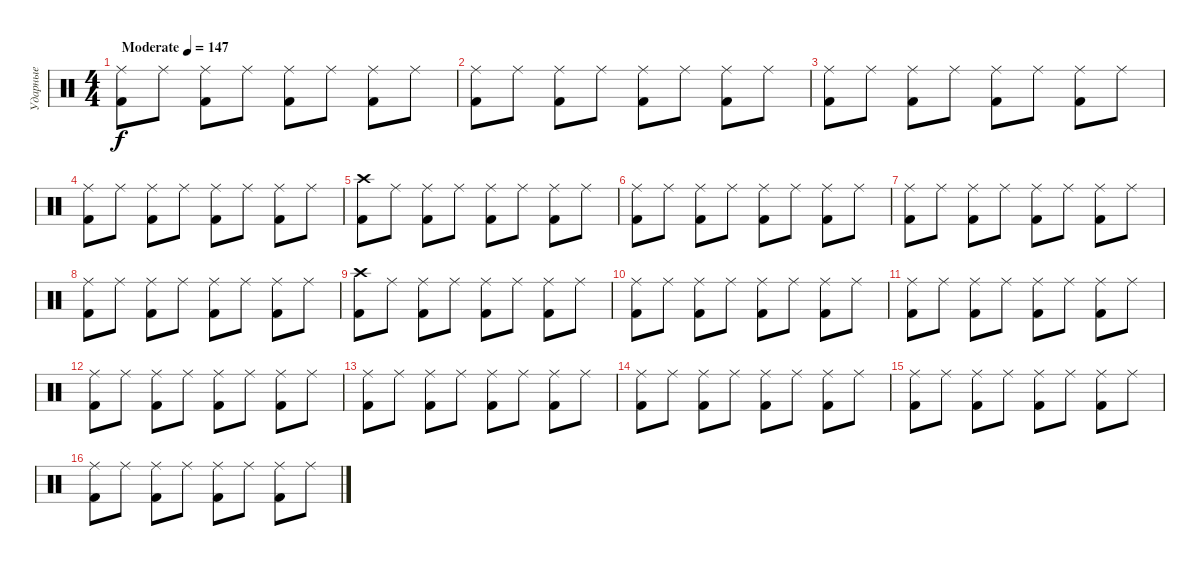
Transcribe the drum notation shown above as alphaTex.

\track ("Ударные" "Ударные") {instrument percussion}
\staff {score}
\articulation defaults
\ts (4 4)
\tempo (147 "Moderate")
\clef neutral
\ks c
("Ride (middle)" "Kick (hit) 2").8{dy f} "Ride (middle)".8 ("Ride (middle)" "Kick (hit) 2").8 "Ride (middle)".8 ("Ride (middle)" "Kick (hit) 2").8 "Ride (middle)".8 ("Ride (middle)" "Kick (hit) 2").8 "Ride (middle)".8 |
("Ride (middle)" "Kick (hit) 2").8 "Ride (middle)".8 ("Ride (middle)" "Kick (hit) 2").8 "Ride (middle)".8 ("Ride (middle)" "Kick (hit) 2").8 "Ride (middle)".8 ("Ride (middle)" "Kick (hit) 2").8 "Ride (middle)".8 |
("Ride (middle)" "Kick (hit) 2").8 "Ride (middle)".8 ("Ride (middle)" "Kick (hit) 2").8 "Ride (middle)".8 ("Ride (middle)" "Kick (hit) 2").8 "Ride (middle)".8 ("Ride (middle)" "Kick (hit) 2").8 "Ride (middle)".8 |
("Ride (middle)" "Kick (hit) 2").8 "Ride (middle)".8 ("Ride (middle)" "Kick (hit) 2").8 "Ride (middle)".8 ("Ride (middle)" "Kick (hit) 2").8 "Ride (middle)".8 ("Ride (middle)" "Kick (hit) 2").8 "Ride (middle)".8 |
("Crash high (hit)" "Kick (hit) 2").8 "Ride (middle)".8 ("Ride (middle)" "Kick (hit) 2").8 "Ride (middle)".8 ("Ride (middle)" "Kick (hit) 2").8 "Ride (middle)".8 ("Ride (middle)" "Kick (hit) 2").8 "Ride (middle)".8 |
("Ride (middle)" "Kick (hit) 2").8 "Ride (middle)".8 ("Ride (middle)" "Kick (hit) 2").8 "Ride (middle)".8 ("Ride (middle)" "Kick (hit) 2").8 "Ride (middle)".8 ("Ride (middle)" "Kick (hit) 2").8 "Ride (middle)".8 |
("Ride (middle)" "Kick (hit) 2").8 "Ride (middle)".8 ("Ride (middle)" "Kick (hit) 2").8 "Ride (middle)".8 ("Ride (middle)" "Kick (hit) 2").8 "Ride (middle)".8 ("Ride (middle)" "Kick (hit) 2").8 "Ride (middle)".8 |
("Ride (middle)" "Kick (hit) 2").8 "Ride (middle)".8 ("Ride (middle)" "Kick (hit) 2").8 "Ride (middle)".8 ("Ride (middle)" "Kick (hit) 2").8 "Ride (middle)".8 ("Ride (middle)" "Kick (hit) 2").8 "Ride (middle)".8 |
("Crash high (hit)" "Kick (hit) 2").8 "Ride (middle)".8 ("Ride (middle)" "Kick (hit) 2").8 "Ride (middle)".8 ("Ride (middle)" "Kick (hit) 2").8 "Ride (middle)".8 ("Ride (middle)" "Kick (hit) 2").8 "Ride (middle)".8 |
("Ride (middle)" "Kick (hit) 2").8 "Ride (middle)".8 ("Ride (middle)" "Kick (hit) 2").8 "Ride (middle)".8 ("Ride (middle)" "Kick (hit) 2").8 "Ride (middle)".8 ("Ride (middle)" "Kick (hit) 2").8 "Ride (middle)".8 |
("Ride (middle)" "Kick (hit) 2").8 "Ride (middle)".8 ("Ride (middle)" "Kick (hit) 2").8 "Ride (middle)".8 ("Ride (middle)" "Kick (hit) 2").8 "Ride (middle)".8 ("Ride (middle)" "Kick (hit) 2").8 "Ride (middle)".8 |
("Ride (middle)" "Kick (hit) 2").8 "Ride (middle)".8 ("Ride (middle)" "Kick (hit) 2").8 "Ride (middle)".8 ("Ride (middle)" "Kick (hit) 2").8 "Ride (middle)".8 ("Ride (middle)" "Kick (hit) 2").8 "Ride (middle)".8 |
("Ride (middle)" "Kick (hit) 2").8 "Ride (middle)".8 ("Ride (middle)" "Kick (hit) 2").8 "Ride (middle)".8 ("Ride (middle)" "Kick (hit) 2").8 "Ride (middle)".8 ("Ride (middle)" "Kick (hit) 2").8 "Ride (middle)".8 |
("Ride (middle)" "Kick (hit) 2").8 "Ride (middle)".8 ("Ride (middle)" "Kick (hit) 2").8 "Ride (middle)".8 ("Ride (middle)" "Kick (hit) 2").8 "Ride (middle)".8 ("Ride (middle)" "Kick (hit) 2").8 "Ride (middle)".8 |
("Ride (middle)" "Kick (hit) 2").8 "Ride (middle)".8 ("Ride (middle)" "Kick (hit) 2").8 "Ride (middle)".8 ("Ride (middle)" "Kick (hit) 2").8 "Ride (middle)".8 ("Ride (middle)" "Kick (hit) 2").8 "Ride (middle)".8 |
("Ride (middle)" "Kick (hit) 2").8 "Ride (middle)".8 ("Ride (middle)" "Kick (hit) 2").8 "Ride (middle)".8 ("Ride (middle)" "Kick (hit) 2").8 "Ride (middle)".8 ("Ride (middle)" "Kick (hit) 2").8 "Ride (middle)".8
